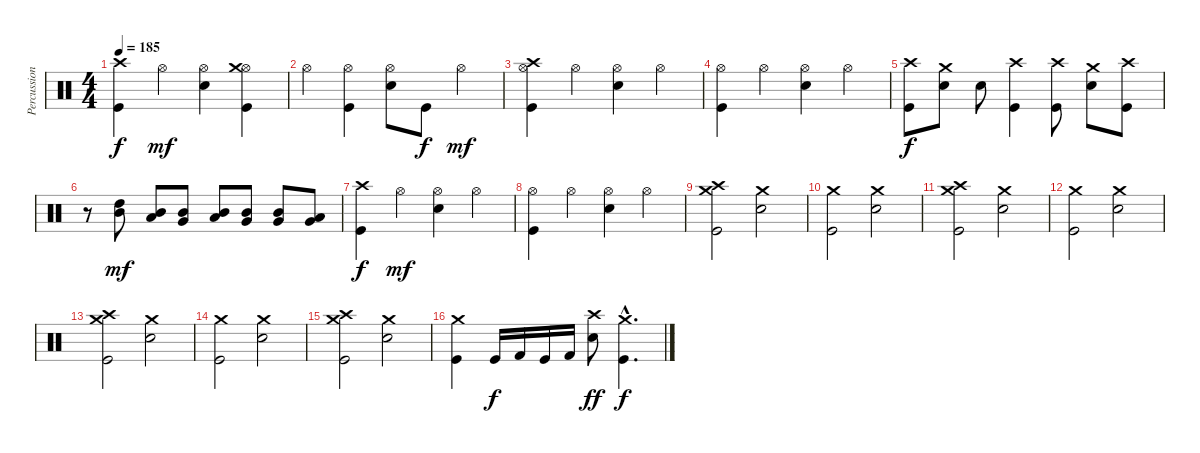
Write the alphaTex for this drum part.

\track ("Percussions" "Percussion") {instrument percussion}
\staff {score}
\articulation defaults
\ts (4 4)
\tempo 185
\clef neutral
\ks c
("Kick (hit)" "Crash high (hit)").4{dy f} "Hi-Hat (open)".4{dy mf} ("Electric Snare (hit)" "Hi-Hat (open)").4 ("Kick (hit)" "Hi-Hat (open)" "Crash medium (hit)").4 |
"Hi-Hat (open)".4 ("Kick (hit)" "Hi-Hat (open)").4 ("Electric Snare (hit)" "Hi-Hat (open)").8 "Kick (hit)".8{dy f} "Hi-Hat (open)".4{dy mf} |
("Kick (hit)" "Hi-Hat (open)" "Crash high (hit)").4 "Hi-Hat (open)".4 ("Electric Snare (hit)" "Hi-Hat (open)").4 "Hi-Hat (open)".4 |
("Kick (hit)" "Hi-Hat (open)").4 "Hi-Hat (open)".4 ("Electric Snare (hit)" "Hi-Hat (open)").4 "Hi-Hat (open)".4 |
("Kick (hit)" "Crash high (hit)").8{dy f} ("Electric Snare (hit)" "Crash medium (hit)").8 "Electric Snare (hit)".8 ("Kick (hit)" "Crash high (hit)").4 ("Kick (hit)" "Crash high (hit)").8 ("Electric Snare (hit)" "Crash medium (hit)").8 ("Kick (hit)" "Crash high (hit)").8 |
r.8 ("Mid Tom (hit)" "High Tom (hit)").8{dy mf} ("Low Tom (hit)" "Mid Tom (hit)").8 ("Very Low Tom (hit)" "Mid Tom (hit)").8 ("Low Tom (hit)" "Mid Tom (hit)").8 ("Very Low Tom (hit)" "Mid Tom (hit)").8 ("Very Low Tom (hit)" "Mid Tom (hit)").8 ("Very Low Tom (hit)" "Low Tom (hit)").8 |
("Kick (hit)" "Crash high (hit)").4{dy f} "Hi-Hat (open)".4{dy mf} ("Electric Snare (hit)" "Hi-Hat (open)").4 "Hi-Hat (open)".4 |
("Kick (hit)" "Hi-Hat (open)").4 "Hi-Hat (open)".4 ("Electric Snare (hit)" "Hi-Hat (open)").4 "Hi-Hat (open)".4 |
("Kick (hit)" "Crash medium (hit)" "Crash high (hit)").2 ("Electric Snare (hit)" "Crash medium (hit)").2 |
("Kick (hit)" "Crash medium (hit)").2 ("Electric Snare (hit)" "Crash medium (hit)").2 |
("Kick (hit)" "Crash medium (hit)" "Crash high (hit)").2 ("Electric Snare (hit)" "Crash medium (hit)").2 |
("Kick (hit)" "Crash medium (hit)").2 ("Electric Snare (hit)" "Crash medium (hit)").2 |
("Kick (hit)" "Crash medium (hit)" "Crash high (hit)").2 ("Electric Snare (hit)" "Crash medium (hit)").2 |
("Kick (hit)" "Crash medium (hit)").2 ("Electric Snare (hit)" "Crash medium (hit)").2 |
("Kick (hit)" "Crash medium (hit)" "Crash high (hit)").2 ("Electric Snare (hit)" "Crash medium (hit)").2 |
("Kick (hit)" "Crash medium (hit)").4 "Kick (hit)".16{dy f} "Kick (hit) 2".16 "Kick (hit)".16 "Kick (hit) 2".16 ("Electric Snare (hit)" "Crash high (hit)").8{dy ff} ("Kick (hit)"{hac} "Crash medium (hit)"{hac}).4{d dy f}
